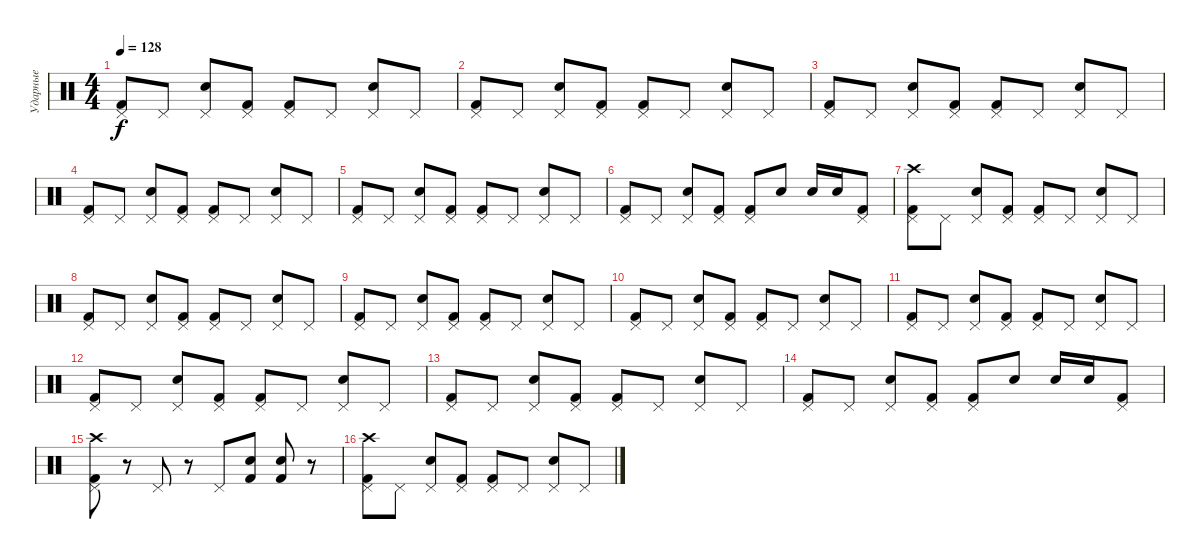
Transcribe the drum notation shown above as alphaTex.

\track ("Ударные" "Ударные") {instrument percussion}
\staff {score}
\articulation defaults
\ts (4 4)
\tempo 128
\clef neutral
\ks c
("Kick (hit) 2" "Pedal Hi-Hat (hit)").8{dy f} "Pedal Hi-Hat (hit)".8 ("Pedal Hi-Hat (hit)" "Electric Snare (hit)").8 ("Kick (hit) 2" "Pedal Hi-Hat (hit)").8 ("Kick (hit) 2" "Pedal Hi-Hat (hit)").8 "Pedal Hi-Hat (hit)".8 ("Pedal Hi-Hat (hit)" "Electric Snare (hit)").8 "Pedal Hi-Hat (hit)".8 |
("Kick (hit) 2" "Pedal Hi-Hat (hit)").8 "Pedal Hi-Hat (hit)".8 ("Pedal Hi-Hat (hit)" "Electric Snare (hit)").8 ("Kick (hit) 2" "Pedal Hi-Hat (hit)").8 ("Kick (hit) 2" "Pedal Hi-Hat (hit)").8 "Pedal Hi-Hat (hit)".8 ("Pedal Hi-Hat (hit)" "Electric Snare (hit)").8 "Pedal Hi-Hat (hit)".8 |
("Kick (hit) 2" "Pedal Hi-Hat (hit)").8 "Pedal Hi-Hat (hit)".8 ("Pedal Hi-Hat (hit)" "Electric Snare (hit)").8 ("Kick (hit) 2" "Pedal Hi-Hat (hit)").8 ("Kick (hit) 2" "Pedal Hi-Hat (hit)").8 "Pedal Hi-Hat (hit)".8 ("Pedal Hi-Hat (hit)" "Electric Snare (hit)").8 "Pedal Hi-Hat (hit)".8 |
("Kick (hit) 2" "Pedal Hi-Hat (hit)").8 "Pedal Hi-Hat (hit)".8 ("Pedal Hi-Hat (hit)" "Electric Snare (hit)").8 ("Kick (hit) 2" "Pedal Hi-Hat (hit)").8 ("Kick (hit) 2" "Pedal Hi-Hat (hit)").8 "Pedal Hi-Hat (hit)".8 ("Pedal Hi-Hat (hit)" "Electric Snare (hit)").8 "Pedal Hi-Hat (hit)".8 |
("Kick (hit) 2" "Pedal Hi-Hat (hit)").8 "Pedal Hi-Hat (hit)".8 ("Pedal Hi-Hat (hit)" "Electric Snare (hit)").8 ("Kick (hit) 2" "Pedal Hi-Hat (hit)").8 ("Kick (hit) 2" "Pedal Hi-Hat (hit)").8 "Pedal Hi-Hat (hit)".8 ("Pedal Hi-Hat (hit)" "Electric Snare (hit)").8 "Pedal Hi-Hat (hit)".8 |
("Kick (hit) 2" "Pedal Hi-Hat (hit)").8 "Pedal Hi-Hat (hit)".8 ("Pedal Hi-Hat (hit)" "Electric Snare (hit)").8 ("Kick (hit) 2" "Pedal Hi-Hat (hit)").8 ("Kick (hit) 2" "Pedal Hi-Hat (hit)").8 "Electric Snare (hit)".8 "Electric Snare (hit)".16 "Electric Snare (hit)".16 ("Kick (hit) 2" "Pedal Hi-Hat (hit)").8 |
("Kick (hit) 2" "Pedal Hi-Hat (hit)" "Crash high (hit)").8 "Pedal Hi-Hat (hit)".8 ("Pedal Hi-Hat (hit)" "Electric Snare (hit)").8 ("Kick (hit) 2" "Pedal Hi-Hat (hit)").8 ("Kick (hit) 2" "Pedal Hi-Hat (hit)").8 "Pedal Hi-Hat (hit)".8 ("Pedal Hi-Hat (hit)" "Electric Snare (hit)").8 "Pedal Hi-Hat (hit)".8 |
("Kick (hit) 2" "Pedal Hi-Hat (hit)").8 "Pedal Hi-Hat (hit)".8 ("Pedal Hi-Hat (hit)" "Electric Snare (hit)").8 ("Kick (hit) 2" "Pedal Hi-Hat (hit)").8 ("Kick (hit) 2" "Pedal Hi-Hat (hit)").8 "Pedal Hi-Hat (hit)".8 ("Pedal Hi-Hat (hit)" "Electric Snare (hit)").8 "Pedal Hi-Hat (hit)".8 |
("Kick (hit) 2" "Pedal Hi-Hat (hit)").8 "Pedal Hi-Hat (hit)".8 ("Pedal Hi-Hat (hit)" "Electric Snare (hit)").8 ("Kick (hit) 2" "Pedal Hi-Hat (hit)").8 ("Kick (hit) 2" "Pedal Hi-Hat (hit)").8 "Pedal Hi-Hat (hit)".8 ("Pedal Hi-Hat (hit)" "Electric Snare (hit)").8 "Pedal Hi-Hat (hit)".8 |
("Kick (hit) 2" "Pedal Hi-Hat (hit)").8 "Pedal Hi-Hat (hit)".8 ("Pedal Hi-Hat (hit)" "Electric Snare (hit)").8 ("Kick (hit) 2" "Pedal Hi-Hat (hit)").8 ("Kick (hit) 2" "Pedal Hi-Hat (hit)").8 "Pedal Hi-Hat (hit)".8 ("Pedal Hi-Hat (hit)" "Electric Snare (hit)").8 "Pedal Hi-Hat (hit)".8 |
("Kick (hit) 2" "Pedal Hi-Hat (hit)").8 "Pedal Hi-Hat (hit)".8 ("Pedal Hi-Hat (hit)" "Electric Snare (hit)").8 ("Kick (hit) 2" "Pedal Hi-Hat (hit)").8 ("Kick (hit) 2" "Pedal Hi-Hat (hit)").8 "Pedal Hi-Hat (hit)".8 ("Pedal Hi-Hat (hit)" "Electric Snare (hit)").8 "Pedal Hi-Hat (hit)".8 |
("Kick (hit) 2" "Pedal Hi-Hat (hit)").8 "Pedal Hi-Hat (hit)".8 ("Pedal Hi-Hat (hit)" "Electric Snare (hit)").8 ("Kick (hit) 2" "Pedal Hi-Hat (hit)").8 ("Kick (hit) 2" "Pedal Hi-Hat (hit)").8 "Pedal Hi-Hat (hit)".8 ("Pedal Hi-Hat (hit)" "Electric Snare (hit)").8 "Pedal Hi-Hat (hit)".8 |
("Kick (hit) 2" "Pedal Hi-Hat (hit)").8 "Pedal Hi-Hat (hit)".8 ("Pedal Hi-Hat (hit)" "Electric Snare (hit)").8 ("Kick (hit) 2" "Pedal Hi-Hat (hit)").8 ("Kick (hit) 2" "Pedal Hi-Hat (hit)").8 "Pedal Hi-Hat (hit)".8 ("Pedal Hi-Hat (hit)" "Electric Snare (hit)").8 "Pedal Hi-Hat (hit)".8 |
("Kick (hit) 2" "Pedal Hi-Hat (hit)").8 "Pedal Hi-Hat (hit)".8 ("Pedal Hi-Hat (hit)" "Electric Snare (hit)").8 ("Kick (hit) 2" "Pedal Hi-Hat (hit)").8 ("Kick (hit) 2" "Pedal Hi-Hat (hit)").8 "Electric Snare (hit)".8 "Electric Snare (hit)".16 "Electric Snare (hit)".16 ("Kick (hit) 2" "Pedal Hi-Hat (hit)").8 |
("Kick (hit) 2" "Pedal Hi-Hat (hit)" "Crash high (hit)").8 r.8 "Pedal Hi-Hat (hit)".8 r.8 "Pedal Hi-Hat (hit)".8 ("Kick (hit) 2" "Electric Snare (hit)").8 ("Kick (hit) 2" "Electric Snare (hit)").8 r.8 |
("Kick (hit) 2" "Pedal Hi-Hat (hit)" "Crash high (hit)").8 "Pedal Hi-Hat (hit)".8 ("Pedal Hi-Hat (hit)" "Electric Snare (hit)").8 ("Kick (hit) 2" "Pedal Hi-Hat (hit)").8 ("Kick (hit) 2" "Pedal Hi-Hat (hit)").8 "Pedal Hi-Hat (hit)".8 ("Pedal Hi-Hat (hit)" "Electric Snare (hit)").8 "Pedal Hi-Hat (hit)".8
